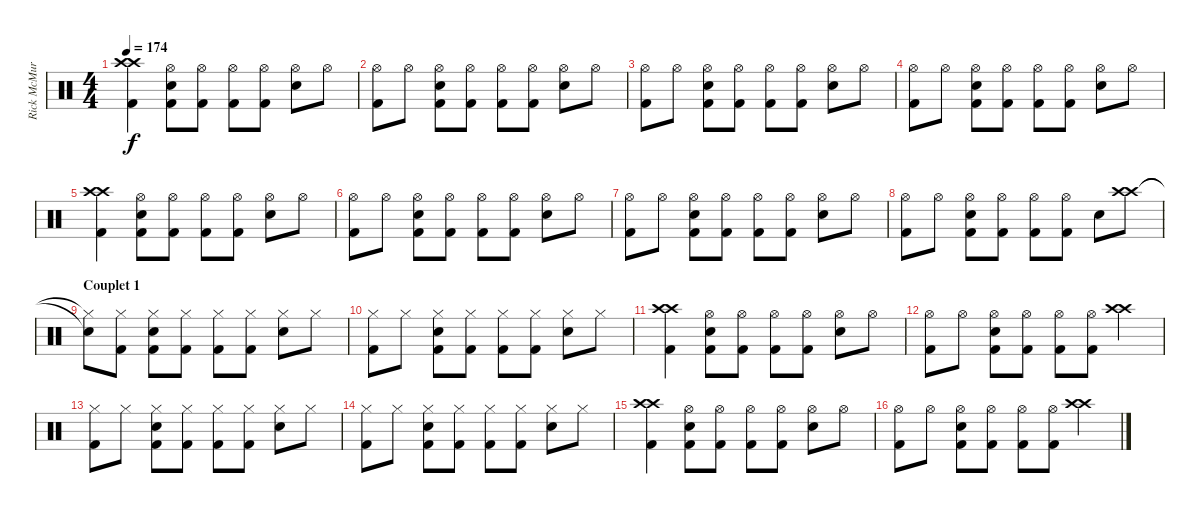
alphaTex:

\track ("Rick McMurray" "Rick McMur") {instrument percussion}
\staff {score}
\articulation defaults
\ts (4 4)
\tempo 174
\clef neutral
\ks c
("Crash high (hit)" "Crash high (hit)" "Kick (hit) 2").4{dy f} ("Hi-Hat (open)" "Snare (hit) 2" "Kick (hit) 2").8 ("Hi-Hat (open)" "Kick (hit) 2").8 ("Hi-Hat (open)" "Kick (hit) 2").8 ("Hi-Hat (open)" "Kick (hit) 2").8 ("Hi-Hat (open)" "Snare (hit) 2").8 "Hi-Hat (open)".8 |
("Hi-Hat (open)" "Kick (hit) 2").8 "Hi-Hat (open)".8 ("Hi-Hat (open)" "Snare (hit) 2" "Kick (hit) 2").8 ("Hi-Hat (open)" "Kick (hit) 2").8 ("Hi-Hat (open)" "Kick (hit) 2").8 ("Hi-Hat (open)" "Kick (hit) 2").8 ("Hi-Hat (open)" "Snare (hit) 2").8 "Hi-Hat (open)".8 |
("Hi-Hat (open)" "Kick (hit) 2").8 "Hi-Hat (open)".8 ("Hi-Hat (open)" "Snare (hit) 2" "Kick (hit) 2").8 ("Hi-Hat (open)" "Kick (hit) 2").8 ("Hi-Hat (open)" "Kick (hit) 2").8 ("Hi-Hat (open)" "Kick (hit) 2").8 ("Hi-Hat (open)" "Snare (hit) 2").8 "Hi-Hat (open)".8 |
("Hi-Hat (open)" "Kick (hit) 2").8 "Hi-Hat (open)".8 ("Hi-Hat (open)" "Snare (hit) 2" "Kick (hit) 2").8 ("Hi-Hat (open)" "Kick (hit) 2").8 ("Hi-Hat (open)" "Kick (hit) 2").8 ("Hi-Hat (open)" "Kick (hit) 2").8 ("Hi-Hat (open)" "Snare (hit) 2").8 "Hi-Hat (open)".8 |
("Crash high (hit)" "Crash high (hit)" "Kick (hit) 2").4 ("Hi-Hat (open)" "Snare (hit) 2" "Kick (hit) 2").8 ("Hi-Hat (open)" "Kick (hit) 2").8 ("Hi-Hat (open)" "Kick (hit) 2").8 ("Hi-Hat (open)" "Kick (hit) 2").8 ("Hi-Hat (open)" "Snare (hit) 2").8 "Hi-Hat (open)".8 |
("Hi-Hat (open)" "Kick (hit) 2").8 "Hi-Hat (open)".8 ("Hi-Hat (open)" "Snare (hit) 2" "Kick (hit) 2").8 ("Hi-Hat (open)" "Kick (hit) 2").8 ("Hi-Hat (open)" "Kick (hit) 2").8 ("Hi-Hat (open)" "Kick (hit) 2").8 ("Hi-Hat (open)" "Snare (hit) 2").8 "Hi-Hat (open)".8 |
("Hi-Hat (open)" "Kick (hit) 2").8 "Hi-Hat (open)".8 ("Hi-Hat (open)" "Snare (hit) 2" "Kick (hit) 2").8 ("Hi-Hat (open)" "Kick (hit) 2").8 ("Hi-Hat (open)" "Kick (hit) 2").8 ("Hi-Hat (open)" "Kick (hit) 2").8 ("Hi-Hat (open)" "Snare (hit) 2").8 "Hi-Hat (open)".8 |
("Hi-Hat (open)" "Kick (hit) 2").8 "Hi-Hat (open)".8 ("Hi-Hat (open)" "Snare (hit) 2" "Kick (hit) 2").8 ("Hi-Hat (open)" "Kick (hit) 2").8 ("Hi-Hat (open)" "Kick (hit) 2").8 ("Hi-Hat (open)" "Kick (hit) 2").8 "Snare (hit) 2".8 ("Crash high (hit)" "Crash high (hit)").8 |
\section ("" "Couplet 1")
("Hi-Hat (closed)"{t} "Snare (hit)"{t}).8 ("Hi-Hat (closed)" "Kick (hit) 2").8 ("Hi-Hat (closed)" "Snare (hit) 2" "Kick (hit) 2").8 ("Hi-Hat (closed)" "Kick (hit) 2").8 ("Hi-Hat (closed)" "Kick (hit) 2").8 ("Hi-Hat (closed)" "Kick (hit) 2").8 ("Hi-Hat (closed)" "Snare (hit) 2").8 "Hi-Hat (closed)".8 |
("Hi-Hat (closed)" "Kick (hit) 2").8 "Hi-Hat (closed)".8 ("Hi-Hat (closed)" "Snare (hit) 2" "Kick (hit) 2").8 ("Hi-Hat (closed)" "Kick (hit) 2").8 ("Hi-Hat (closed)" "Kick (hit) 2").8 ("Hi-Hat (closed)" "Kick (hit) 2").8 ("Hi-Hat (closed)" "Snare (hit) 2").8 "Hi-Hat (closed)".8 |
("Crash high (hit)" "Crash high (hit)" "Kick (hit) 2").4 ("Hi-Hat (open)" "Snare (hit) 2" "Kick (hit) 2").8 ("Hi-Hat (open)" "Kick (hit) 2").8 ("Hi-Hat (open)" "Kick (hit) 2").8 ("Hi-Hat (open)" "Kick (hit) 2").8 ("Hi-Hat (open)" "Snare (hit) 2").8 "Hi-Hat (open)".8 |
("Hi-Hat (open)" "Kick (hit) 2").8 "Hi-Hat (open)".8 ("Hi-Hat (open)" "Snare (hit) 2" "Kick (hit) 2").8 ("Hi-Hat (open)" "Kick (hit) 2").8 ("Hi-Hat (open)" "Kick (hit) 2").8 ("Hi-Hat (open)" "Kick (hit) 2").8 ("Crash high (hit)" "Crash high (hit)").4 |
("Hi-Hat (closed)" "Kick (hit) 2").8 "Hi-Hat (closed)".8 ("Hi-Hat (closed)" "Snare (hit) 2" "Kick (hit) 2").8 ("Hi-Hat (closed)" "Kick (hit) 2").8 ("Hi-Hat (closed)" "Kick (hit) 2").8 ("Hi-Hat (closed)" "Kick (hit) 2").8 ("Hi-Hat (closed)" "Snare (hit) 2").8 "Hi-Hat (closed)".8 |
("Hi-Hat (closed)" "Kick (hit) 2").8 "Hi-Hat (closed)".8 ("Hi-Hat (closed)" "Snare (hit) 2" "Kick (hit) 2").8 ("Hi-Hat (closed)" "Kick (hit) 2").8 ("Hi-Hat (closed)" "Kick (hit) 2").8 ("Hi-Hat (closed)" "Kick (hit) 2").8 ("Hi-Hat (closed)" "Snare (hit) 2").8 "Hi-Hat (closed)".8 |
("Crash high (hit)" "Crash high (hit)" "Kick (hit) 2").4 ("Hi-Hat (open)" "Snare (hit) 2" "Kick (hit) 2").8 ("Hi-Hat (open)" "Kick (hit) 2").8 ("Hi-Hat (open)" "Kick (hit) 2").8 ("Hi-Hat (open)" "Kick (hit) 2").8 ("Hi-Hat (open)" "Snare (hit) 2").8 "Hi-Hat (open)".8 |
("Hi-Hat (open)" "Kick (hit) 2").8 "Hi-Hat (open)".8 ("Hi-Hat (open)" "Snare (hit) 2" "Kick (hit) 2").8 ("Hi-Hat (open)" "Kick (hit) 2").8 ("Hi-Hat (open)" "Kick (hit) 2").8 ("Hi-Hat (open)" "Kick (hit) 2").8 ("Crash high (hit)" "Crash high (hit)").4
